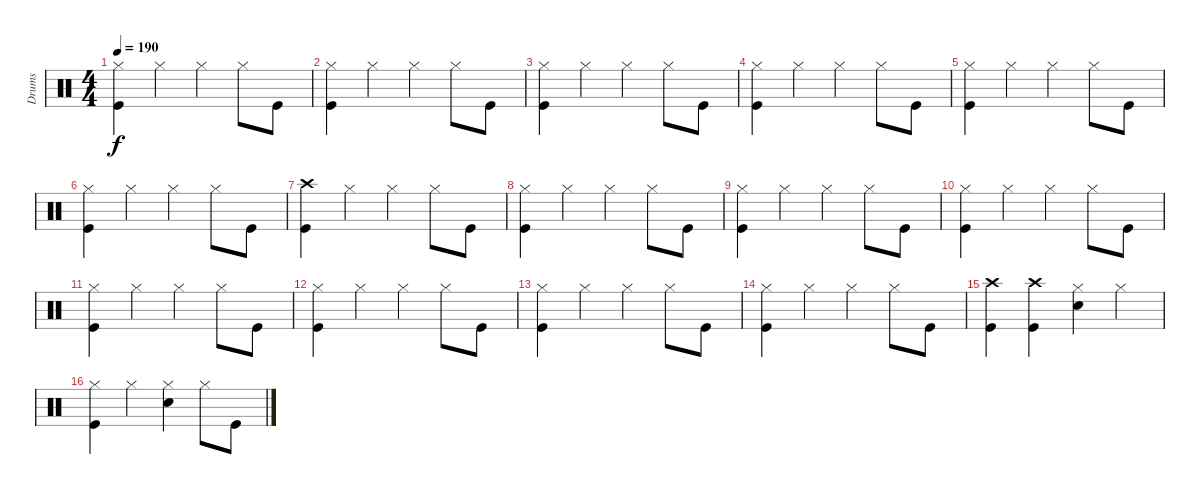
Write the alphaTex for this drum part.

\track ("Drums" "Drums") {instrument percussion}
\staff {score}
\articulation defaults
\ts (4 4)
\tempo 190
\clef neutral
\ks c
("Hi-Hat (closed)" "Kick (hit)").4{dy f} "Hi-Hat (closed)".4 "Hi-Hat (closed)".4 "Hi-Hat (closed)".8 "Kick (hit)".8 |
("Hi-Hat (closed)" "Kick (hit)").4 "Hi-Hat (closed)".4 "Hi-Hat (closed)".4 "Hi-Hat (closed)".8 "Kick (hit)".8 |
("Hi-Hat (closed)" "Kick (hit)").4 "Hi-Hat (closed)".4 "Hi-Hat (closed)".4 "Hi-Hat (closed)".8 "Kick (hit)".8 |
("Hi-Hat (closed)" "Kick (hit)").4 "Hi-Hat (closed)".4 "Hi-Hat (closed)".4 "Hi-Hat (closed)".8 "Kick (hit)".8 |
("Hi-Hat (closed)" "Kick (hit)").4 "Hi-Hat (closed)".4 "Hi-Hat (closed)".4 "Hi-Hat (closed)".8 "Kick (hit)".8 |
("Hi-Hat (closed)" "Kick (hit)").4 "Hi-Hat (closed)".4 "Hi-Hat (closed)".4 "Hi-Hat (closed)".8 "Kick (hit)".8 |
("Crash high (hit)" "Kick (hit)").4 "Hi-Hat (closed)".4 "Hi-Hat (closed)".4 "Hi-Hat (closed)".8 "Kick (hit)".8 |
("Hi-Hat (closed)" "Kick (hit)").4 "Hi-Hat (closed)".4 "Hi-Hat (closed)".4 "Hi-Hat (closed)".8 "Kick (hit)".8 |
("Hi-Hat (closed)" "Kick (hit)").4 "Hi-Hat (closed)".4 "Hi-Hat (closed)".4 "Hi-Hat (closed)".8 "Kick (hit)".8 |
("Hi-Hat (closed)" "Kick (hit)").4 "Hi-Hat (closed)".4 "Hi-Hat (closed)".4 "Hi-Hat (closed)".8 "Kick (hit)".8 |
("Hi-Hat (closed)" "Kick (hit)").4 "Hi-Hat (closed)".4 "Hi-Hat (closed)".4 "Hi-Hat (closed)".8 "Kick (hit)".8 |
("Hi-Hat (closed)" "Kick (hit)").4 "Hi-Hat (closed)".4 "Hi-Hat (closed)".4 "Hi-Hat (closed)".8 "Kick (hit)".8 |
("Hi-Hat (closed)" "Kick (hit)").4 "Hi-Hat (closed)".4 "Hi-Hat (closed)".4 "Hi-Hat (closed)".8 "Kick (hit)".8 |
("Hi-Hat (closed)" "Kick (hit)").4 "Hi-Hat (closed)".4 "Hi-Hat (closed)".4 "Hi-Hat (closed)".8 "Kick (hit)".8 |
("Crash high (hit)" "Kick (hit)").4 ("Crash high (hit)" "Kick (hit)").4 ("Hi-Hat (closed)" "Snare (hit) 2").4 "Hi-Hat (closed)".4 |
("Hi-Hat (closed)" "Kick (hit)").4 "Hi-Hat (closed)".4 ("Hi-Hat (closed)" "Snare (hit) 2").4 "Hi-Hat (closed)".8 "Kick (hit)".8
